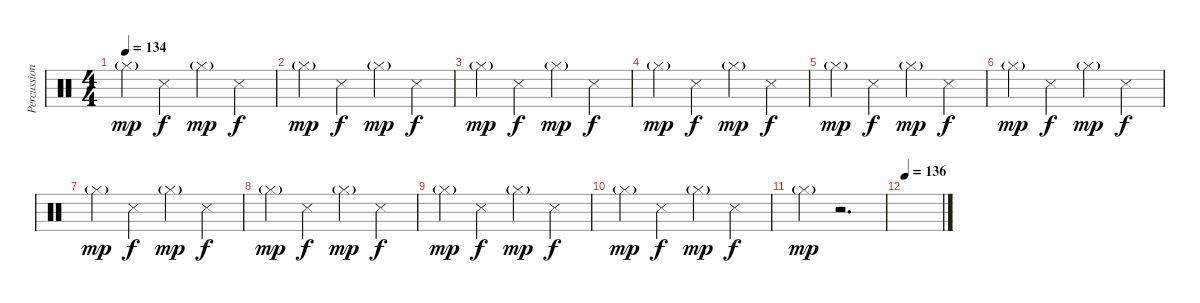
\track ("Percussion" "Percussion") {instrument percussion}
\staff {score}
\articulation defaults
\ts (4 4)
\tempo 134
\clef neutral
\ks c "Hi-Hat (closed)"{g}.4{dy mp} "Snare (side stick) 3".4{dy f} "Hi-Hat (closed)"{g}.4{dy mp} "Snare (side stick) 3".4{dy f}
|
"Hi-Hat (closed)"{g}.4{dy mp} "Snare (side stick) 3".4{dy f} "Hi-Hat (closed)"{g}.4{dy mp} "Snare (side stick) 3".4{dy f} |
"Hi-Hat (closed)"{g}.4{dy mp} "Snare (side stick) 3".4{dy f} "Hi-Hat (closed)"{g}.4{dy mp} "Snare (side stick) 3".4{dy f} |
"Hi-Hat (closed)"{g}.4{dy mp} "Snare (side stick) 3".4{dy f} "Hi-Hat (closed)"{g}.4{dy mp} "Snare (side stick) 3".4{dy f} |
"Hi-Hat (closed)"{g}.4{dy mp} "Snare (side stick) 3".4{dy f} "Hi-Hat (closed)"{g}.4{dy mp} "Snare (side stick) 3".4{dy f} |
"Hi-Hat (closed)"{g}.4{dy mp} "Snare (side stick) 3".4{dy f} "Hi-Hat (closed)"{g}.4{dy mp} "Snare (side stick) 3".4{dy f} |
"Hi-Hat (closed)"{g}.4{dy mp} "Snare (side stick) 3".4{dy f} "Hi-Hat (closed)"{g}.4{dy mp} "Snare (side stick) 3".4{dy f} |
"Hi-Hat (closed)"{g}.4{dy mp} "Snare (side stick) 3".4{dy f} "Hi-Hat (closed)"{g}.4{dy mp} "Snare (side stick) 3".4{dy f} |
"Hi-Hat (closed)"{g}.4{dy mp} "Snare (side stick) 3".4{dy f} "Hi-Hat (closed)"{g}.4{dy mp} "Snare (side stick) 3".4{dy f} |
"Hi-Hat (closed)"{g}.4{dy mp} "Snare (side stick) 3".4{dy f} "Hi-Hat (closed)"{g}.4{dy mp} "Snare (side stick) 3".4{dy f} |
"Hi-Hat (closed)"{g}.4{dy mp} r.2{d} |
\tempo 136
